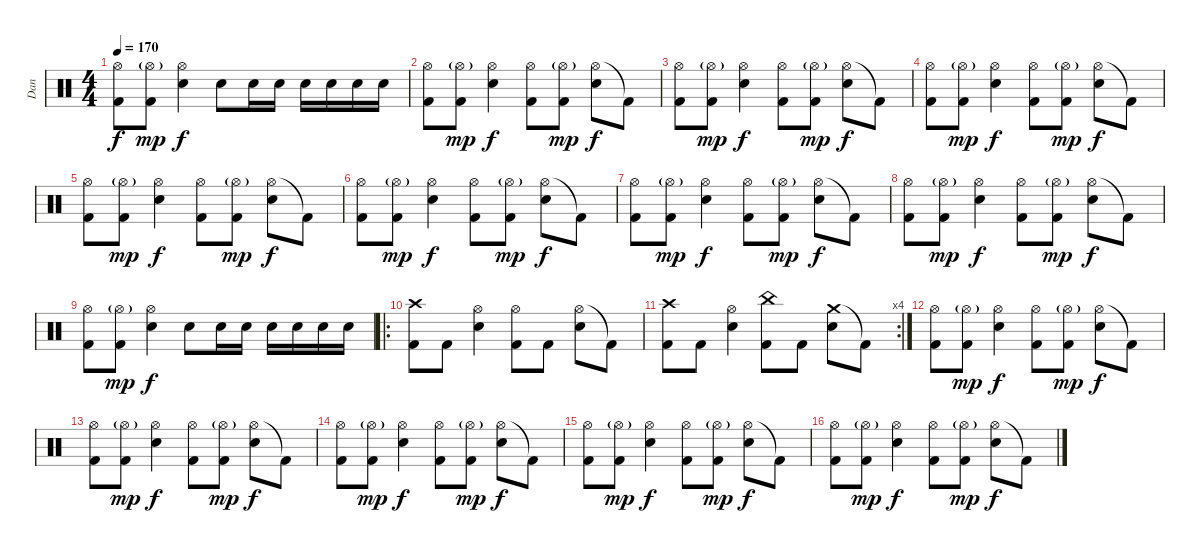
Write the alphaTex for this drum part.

\track ("Dan" "Dan") {instrument percussion}
\staff {score}
\articulation defaults
\ts (4 4)
\tempo 170
\clef neutral
\ks c
("Hi-Hat (open)" "Kick (hit) 2").8{dy f} ("Hi-Hat (open)"{g} "Kick (hit) 2").8{dy mp} ("Hi-Hat (open)" "Snare (hit) 2").4{dy f} "Snare (hit) 2".8 "Snare (hit) 2".16 "Snare (hit) 2".16 "Snare (hit) 2".16 "Snare (hit) 2".16 "Snare (hit) 2".16 "Snare (hit) 2".16 |
("Hi-Hat (open)" "Kick (hit) 2").8 ("Hi-Hat (open)"{g} "Kick (hit) 2").8{dy mp} ("Hi-Hat (open)" "Snare (hit) 2").4{dy f} ("Hi-Hat (open)" "Kick (hit) 2").8 ("Hi-Hat (open)"{g} "Kick (hit) 2").8{dy mp} ("Hi-Hat (open)" "Snare (hit) 2").8{dy f} "Kick (hit) 2"{t}.8 |
("Hi-Hat (open)" "Kick (hit) 2").8 ("Hi-Hat (open)"{g} "Kick (hit) 2").8{dy mp} ("Hi-Hat (open)" "Snare (hit) 2").4{dy f} ("Hi-Hat (open)" "Kick (hit) 2").8 ("Hi-Hat (open)"{g} "Kick (hit) 2").8{dy mp} ("Hi-Hat (open)" "Snare (hit) 2").8{dy f} "Kick (hit) 2"{t}.8 |
("Hi-Hat (open)" "Kick (hit) 2").8 ("Hi-Hat (open)"{g} "Kick (hit) 2").8{dy mp} ("Hi-Hat (open)" "Snare (hit) 2").4{dy f} ("Hi-Hat (open)" "Kick (hit) 2").8 ("Hi-Hat (open)"{g} "Kick (hit) 2").8{dy mp} ("Hi-Hat (open)" "Snare (hit) 2").8{dy f} "Kick (hit) 2"{t}.8 |
("Hi-Hat (open)" "Kick (hit) 2").8 ("Hi-Hat (open)"{g} "Kick (hit) 2").8{dy mp} ("Hi-Hat (open)" "Snare (hit) 2").4{dy f} ("Hi-Hat (open)" "Kick (hit) 2").8 ("Hi-Hat (open)"{g} "Kick (hit) 2").8{dy mp} ("Hi-Hat (open)" "Snare (hit) 2").8{dy f} "Kick (hit) 2"{t}.8 |
("Hi-Hat (open)" "Kick (hit) 2").8 ("Hi-Hat (open)"{g} "Kick (hit) 2").8{dy mp} ("Hi-Hat (open)" "Snare (hit) 2").4{dy f} ("Hi-Hat (open)" "Kick (hit) 2").8 ("Hi-Hat (open)"{g} "Kick (hit) 2").8{dy mp} ("Hi-Hat (open)" "Snare (hit) 2").8{dy f} "Kick (hit) 2"{t}.8 |
("Hi-Hat (open)" "Kick (hit) 2").8 ("Hi-Hat (open)"{g} "Kick (hit) 2").8{dy mp} ("Hi-Hat (open)" "Snare (hit) 2").4{dy f} ("Hi-Hat (open)" "Kick (hit) 2").8 ("Hi-Hat (open)"{g} "Kick (hit) 2").8{dy mp} ("Hi-Hat (open)" "Snare (hit) 2").8{dy f} "Kick (hit) 2"{t}.8 |
("Hi-Hat (open)" "Kick (hit) 2").8 ("Hi-Hat (open)"{g} "Kick (hit) 2").8{dy mp} ("Hi-Hat (open)" "Snare (hit) 2").4{dy f} ("Hi-Hat (open)" "Kick (hit) 2").8 ("Hi-Hat (open)"{g} "Kick (hit) 2").8{dy mp} ("Hi-Hat (open)" "Snare (hit) 2").8{dy f} "Kick (hit) 2"{t}.8 |
("Hi-Hat (open)" "Kick (hit) 2").8 ("Hi-Hat (open)"{g} "Kick (hit) 2").8{dy mp} ("Hi-Hat (open)" "Snare (hit) 2").4{dy f} "Snare (hit) 2".8 "Snare (hit) 2".16 "Snare (hit) 2".16 "Snare (hit) 2".16 "Snare (hit) 2".16 "Snare (hit) 2".16 "Snare (hit) 2".16 |
\ro
("Crash high (hit)" "Kick (hit) 2").8 "Kick (hit) 2".8 ("Hi-Hat (open)" "Snare (hit) 2").4 ("Hi-Hat (open)" "Kick (hit) 2").8 "Kick (hit) 2".8 ("Hi-Hat (open)" "Snare (hit) 2").8 "Kick (hit) 2"{t}.8 |
\rc 4
("Crash high (hit)" "Kick (hit) 2").8 "Kick (hit) 2".8 ("Hi-Hat (open)" "Snare (hit) 2").4 ("China (hit)" "Kick (hit) 2").8 "Kick (hit) 2".8 ("Crash medium (hit)" "Snare (hit) 2").8 "Kick (hit) 2"{t}.8 |
("Hi-Hat (open)" "Kick (hit) 2").8 ("Hi-Hat (open)"{g} "Kick (hit) 2").8{dy mp} ("Hi-Hat (open)" "Snare (hit) 2").4{dy f} ("Hi-Hat (open)" "Kick (hit) 2").8 ("Hi-Hat (open)"{g} "Kick (hit) 2").8{dy mp} ("Hi-Hat (open)" "Snare (hit) 2").8{dy f} "Kick (hit) 2"{t}.8 |
("Hi-Hat (open)" "Kick (hit) 2").8 ("Hi-Hat (open)"{g} "Kick (hit) 2").8{dy mp} ("Hi-Hat (open)" "Snare (hit) 2").4{dy f} ("Hi-Hat (open)" "Kick (hit) 2").8 ("Hi-Hat (open)"{g} "Kick (hit) 2").8{dy mp} ("Hi-Hat (open)" "Snare (hit) 2").8{dy f} "Kick (hit) 2"{t}.8 |
("Hi-Hat (open)" "Kick (hit) 2").8 ("Hi-Hat (open)"{g} "Kick (hit) 2").8{dy mp} ("Hi-Hat (open)" "Snare (hit) 2").4{dy f} ("Hi-Hat (open)" "Kick (hit) 2").8 ("Hi-Hat (open)"{g} "Kick (hit) 2").8{dy mp} ("Hi-Hat (open)" "Snare (hit) 2").8{dy f} "Kick (hit) 2"{t}.8 |
("Hi-Hat (open)" "Kick (hit) 2").8 ("Hi-Hat (open)"{g} "Kick (hit) 2").8{dy mp} ("Hi-Hat (open)" "Snare (hit) 2").4{dy f} ("Hi-Hat (open)" "Kick (hit) 2").8 ("Hi-Hat (open)"{g} "Kick (hit) 2").8{dy mp} ("Hi-Hat (open)" "Snare (hit) 2").8{dy f} "Kick (hit) 2"{t}.8 |
("Hi-Hat (open)" "Kick (hit) 2").8 ("Hi-Hat (open)"{g} "Kick (hit) 2").8{dy mp} ("Hi-Hat (open)" "Snare (hit) 2").4{dy f} ("Hi-Hat (open)" "Kick (hit) 2").8 ("Hi-Hat (open)"{g} "Kick (hit) 2").8{dy mp} ("Hi-Hat (open)" "Snare (hit) 2").8{dy f} "Kick (hit) 2"{t}.8
